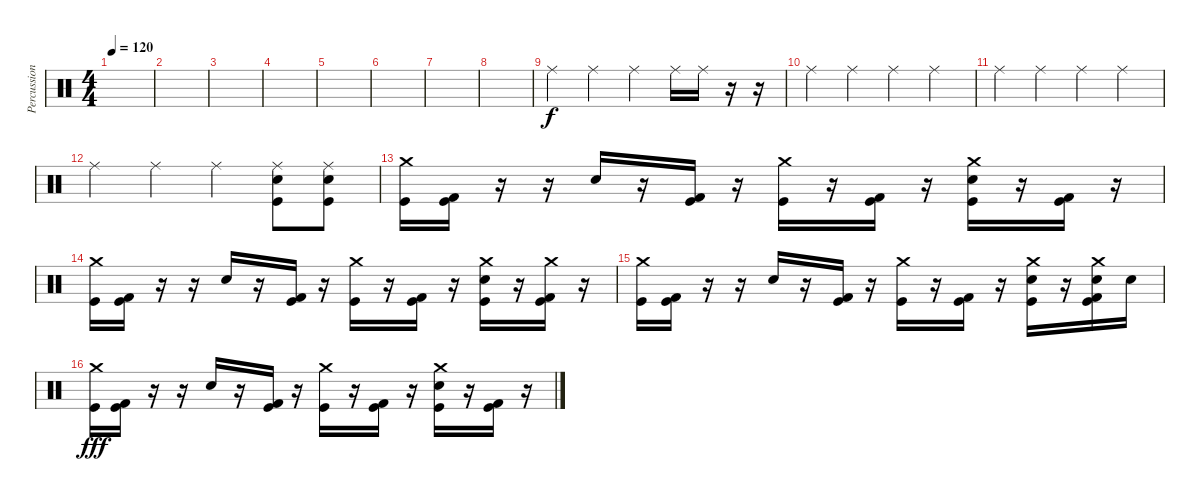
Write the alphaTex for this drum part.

\track ("Percussions" "Percussion") {instrument percussion}
\staff {score}
\articulation defaults
\ts (4 4)
\tempo 120
\clef neutral
\ks c
|
|
|
|
|
|
|
|
"Ride (middle)".4 "Ride (middle)".4 "Ride (middle)".4 "Ride (middle)".16 "Ride (middle)".16 r.16 r.16 |
"Ride (middle)".4 "Ride (middle)".4 "Ride (middle)".4 "Ride (middle)".4 |
"Ride (middle)".4 "Ride (middle)".4 "Ride (middle)".4 "Ride (middle)".4 |
"Ride (middle)".4 "Ride (middle)".4 "Ride (middle)".4 ("Ride (middle)" "Snare (hit) 2" "Kick (hit)").8 ("Ride (middle)" "Snare (hit) 2" "Kick (hit)").8 |
("Crash medium (hit)" "Kick (hit)").16 ("Kick (hit) 2" "Kick (hit)").16 r.16 r.16 "Snare (hit) 2".16 r.16 ("Kick (hit) 2" "Kick (hit)").16 r.16 ("Crash medium (hit)" "Kick (hit)").16 r.16 ("Kick (hit) 2" "Kick (hit)").16 r.16 ("Crash medium (hit)" "Snare (hit) 2" "Kick (hit)").16 r.16 ("Kick (hit) 2" "Kick (hit)").16 r.16 |
("Crash medium (hit)" "Kick (hit)").16 ("Kick (hit) 2" "Kick (hit)").16 r.16 r.16 "Snare (hit) 2".16 r.16 ("Kick (hit) 2" "Kick (hit)").16 r.16 ("Crash medium (hit)" "Kick (hit)").16 r.16 ("Kick (hit) 2" "Kick (hit)").16 r.16 ("Crash medium (hit)" "Snare (hit) 2" "Kick (hit)").16 r.16 ("Crash medium (hit)" "Kick (hit) 2" "Kick (hit)").16 r.16 |
("Crash medium (hit)" "Kick (hit)").16 ("Kick (hit) 2" "Kick (hit)").16 r.16 r.16 "Snare (hit) 2".16 r.16 ("Kick (hit) 2" "Kick (hit)").16 r.16 ("Crash medium (hit)" "Kick (hit)").16 r.16 ("Kick (hit) 2" "Kick (hit)").16 r.16 ("Crash medium (hit)" "Snare (hit) 2" "Kick (hit)").16 r.16 ("Crash medium (hit)" "Snare (hit) 2" "Kick (hit) 2" "Kick (hit)").16 "Snare (hit) 2".16{dy f} |
("Crash medium (hit)" "Kick (hit)").16{dy fff} ("Kick (hit) 2" "Kick (hit)").16 r.16 r.16 "Snare (hit) 2".16 r.16 ("Kick (hit) 2" "Kick (hit)").16 r.16 ("Crash medium (hit)" "Kick (hit)").16 r.16 ("Kick (hit) 2" "Kick (hit)").16 r.16 ("Crash medium (hit)" "Snare (hit) 2" "Kick (hit)").16 r.16 ("Kick (hit) 2" "Kick (hit)").16 r.16
